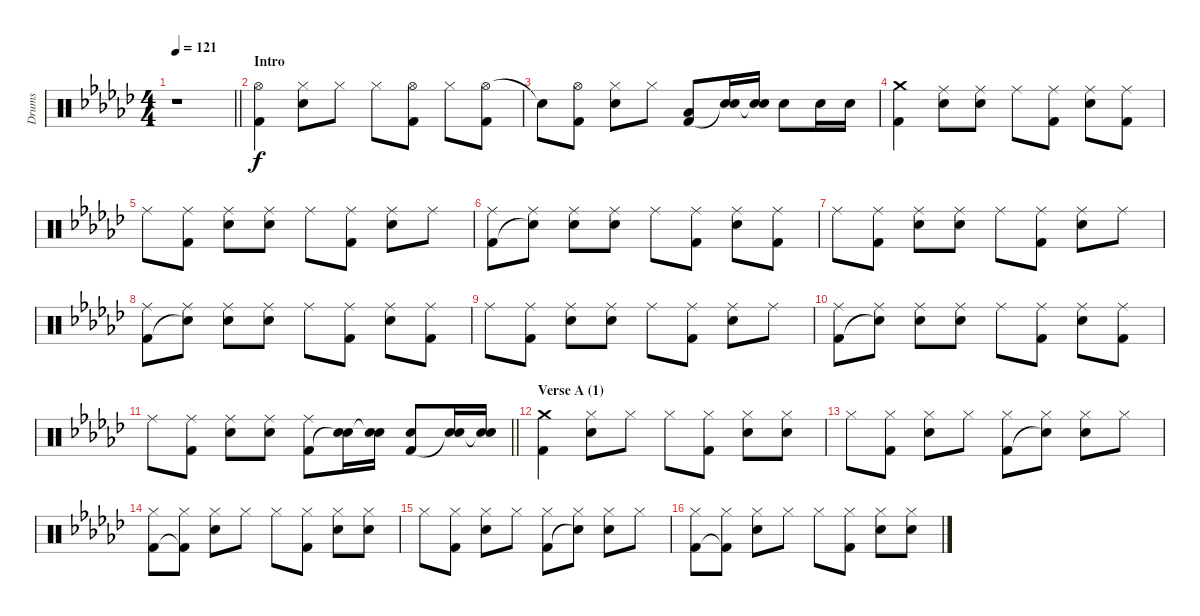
\track ("Drums" "Drums") {instrument percussion}
\staff {score}
\articulation defaults
\ts (4 4)
\tempo 121
\clef neutral
\barLineRight lightlight
\ks ebminor
r.1{dy f} |
\section ("" "Intro")
("Hi-Hat (open)" "Kick (hit) 2").4 ("Hi-Hat (closed)" "Electric Snare (hit)").8 "Hi-Hat (closed)".8 "Hi-Hat (closed)".8 ("Hi-Hat (open)" "Kick (hit) 2").8 "Hi-Hat (closed)".8 ("Hi-Hat (open)" "Kick (hit) 2").8 |
"Snare (hit)"{t}.8 ("Hi-Hat (open)" "Kick (hit) 2").8 ("Hi-Hat (closed)" "Electric Snare (hit)").8 "Hi-Hat (closed)".8 ("Low Floor Tom (hit)" "Kick (hit) 2").8 ("Electric Snare (hit)" "Snare (hit)"{t}).16 ("Electric Snare (hit)" "Snare (hit)"{t}).16 "Electric Snare (hit)".8 "Electric Snare (hit)".16 "Electric Snare (hit)".16 |
("Crash medium (hit)" "Kick (hit) 2").4 ("Ride (middle)" "Electric Snare (hit)").8 ("Ride (middle)" "Electric Snare (hit)").8 "Ride (middle)".8 ("Ride (middle)" "Kick (hit) 2").8 ("Ride (middle)" "Electric Snare (hit)").8 ("Ride (middle)" "Kick (hit) 2").8 |
"Ride (middle)".8 ("Ride (middle)" "Kick (hit) 2").8 ("Ride (middle)" "Electric Snare (hit)").8 ("Ride (middle)" "Electric Snare (hit)").8 "Ride (middle)".8 ("Ride (middle)" "Kick (hit) 2").8 ("Ride (middle)" "Electric Snare (hit)").8 "Ride (middle)".8 |
("Ride (middle)" "Kick (hit) 2").8 ("Ride (middle)" "Snare (hit)"{t}).8 ("Ride (middle)" "Electric Snare (hit)").8 ("Ride (middle)" "Electric Snare (hit)").8 "Ride (middle)".8 ("Ride (middle)" "Kick (hit) 2").8 ("Ride (middle)" "Electric Snare (hit)").8 ("Ride (middle)" "Kick (hit) 2").8 |
"Ride (middle)".8 ("Ride (middle)" "Kick (hit) 2").8 ("Ride (middle)" "Electric Snare (hit)").8 ("Ride (middle)" "Electric Snare (hit)").8 "Ride (middle)".8 ("Ride (middle)" "Kick (hit) 2").8 ("Ride (middle)" "Electric Snare (hit)").8 "Ride (middle)".8 |
("Ride (middle)" "Kick (hit) 2").8 ("Ride (middle)" "Snare (hit)"{t}).8 ("Ride (middle)" "Electric Snare (hit)").8 ("Ride (middle)" "Electric Snare (hit)").8 "Ride (middle)".8 ("Ride (middle)" "Kick (hit) 2").8 ("Ride (middle)" "Electric Snare (hit)").8 ("Ride (middle)" "Kick (hit) 2").8 |
"Ride (middle)".8 ("Ride (middle)" "Kick (hit) 2").8 ("Ride (middle)" "Electric Snare (hit)").8 ("Ride (middle)" "Electric Snare (hit)").8 "Ride (middle)".8 ("Ride (middle)" "Kick (hit) 2").8 ("Ride (middle)" "Electric Snare (hit)").8 "Ride (middle)".8 |
("Ride (middle)" "Kick (hit) 2").8 ("Ride (middle)" "Snare (hit)"{t}).8 ("Ride (middle)" "Electric Snare (hit)").8 ("Ride (middle)" "Electric Snare (hit)").8 "Ride (middle)".8 ("Ride (middle)" "Kick (hit) 2").8 ("Ride (middle)" "Electric Snare (hit)").8 ("Ride (middle)" "Kick (hit) 2").8 |
\barLineRight lightlight "Ride (middle)".8
("Ride (middle)" "Kick (hit) 2").8 ("Ride (middle)" "Electric Snare (hit)").8 ("Ride (middle)" "Electric Snare (hit)").8 ("Ride (middle)" "Kick (hit) 2").8 ("Electric Snare (hit)" "Snare (hit)"{t}).16 ("Electric Snare (hit)" "Snare (hit)"{t}).16 ("Electric Snare (hit)" "Kick (hit) 2").8 ("Electric Snare (hit)" "Snare (hit)"{t}).16 ("Electric Snare (hit)" "Snare (hit)"{t}).16 |
\section ("" "Verse A (1)")
("Crash medium (hit)" "Kick (hit) 2").4 ("Hi-Hat (closed)" "Electric Snare (hit)").8 "Hi-Hat (closed)".8 "Hi-Hat (closed)".8 ("Hi-Hat (closed)" "Kick (hit) 2").8 ("Hi-Hat (closed)" "Electric Snare (hit)").8 ("Hi-Hat (closed)" "Electric Snare (hit)").8 |
"Hi-Hat (closed)".8 ("Hi-Hat (closed)" "Kick (hit) 2").8 ("Hi-Hat (closed)" "Electric Snare (hit)").8 "Hi-Hat (closed)".8 ("Hi-Hat (closed)" "Kick (hit) 2").8 ("Hi-Hat (closed)" "Snare (hit)"{t}).8 ("Hi-Hat (closed)" "Electric Snare (hit)").8 "Hi-Hat (closed)".8 |
("Hi-Hat (closed)" "Kick (hit) 2").8 ("Hi-Hat (closed)" "Kick (hit) 2"{t}).8 ("Hi-Hat (closed)" "Electric Snare (hit)").8 "Hi-Hat (closed)".8 "Hi-Hat (closed)".8 ("Hi-Hat (closed)" "Kick (hit) 2").8 ("Hi-Hat (closed)" "Electric Snare (hit)").8 ("Hi-Hat (closed)" "Electric Snare (hit)").8 |
"Hi-Hat (closed)".8 ("Hi-Hat (closed)" "Kick (hit) 2").8 ("Hi-Hat (closed)" "Electric Snare (hit)").8 "Hi-Hat (closed)".8 ("Hi-Hat (closed)" "Kick (hit) 2").8 ("Hi-Hat (closed)" "Snare (hit)"{t}).8 ("Hi-Hat (closed)" "Electric Snare (hit)").8 "Hi-Hat (closed)".8 |
("Hi-Hat (closed)" "Kick (hit) 2").8 ("Hi-Hat (closed)" "Kick (hit) 2"{t}).8 ("Hi-Hat (closed)" "Electric Snare (hit)").8 "Hi-Hat (closed)".8 "Hi-Hat (closed)".8 ("Hi-Hat (closed)" "Kick (hit) 2").8 ("Hi-Hat (closed)" "Electric Snare (hit)").8 ("Hi-Hat (closed)" "Electric Snare (hit)").8
